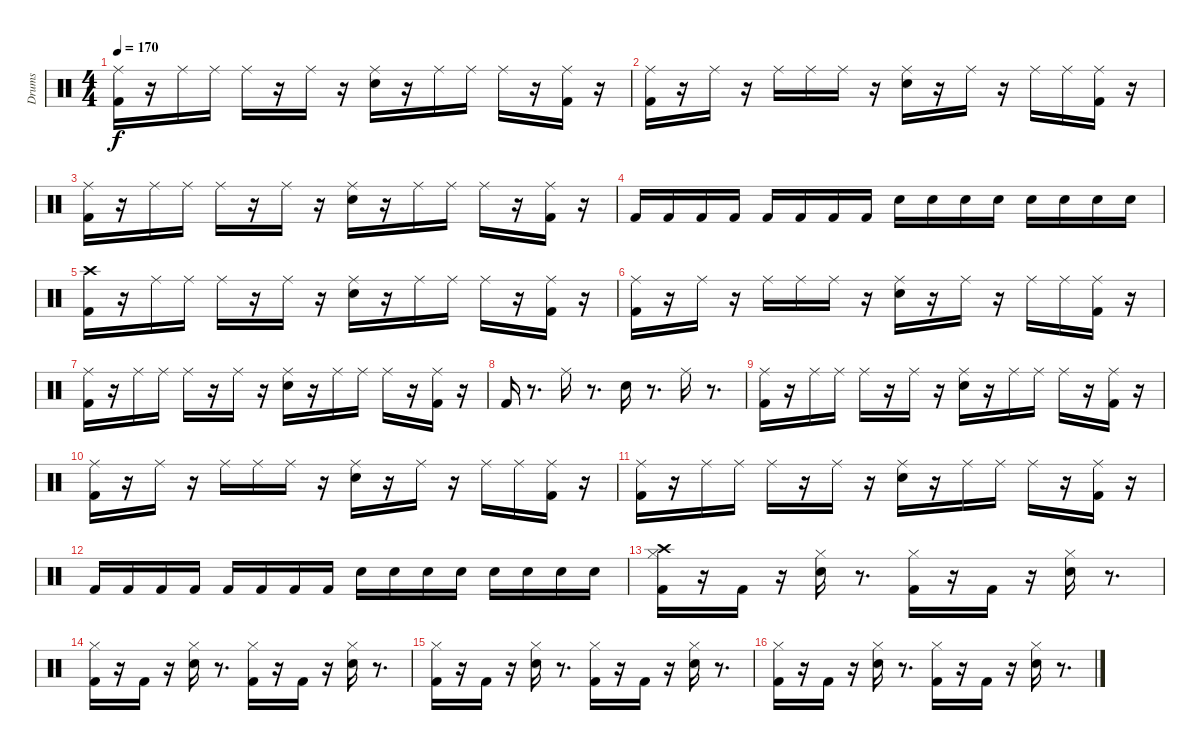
\track ("Drums               " "Drums     ") {instrument percussion}
\staff {score}
\articulation defaults
\ts (4 4)
\tempo 170
\clef neutral
\ks c
("Kick (hit) 2" "Ride (middle)").16{dy f} r.16 "Ride (middle)".16 "Ride (middle)".16 "Ride (middle)".16 r.16 "Ride (middle)".16 r.16 ("Snare (hit) 2" "Ride (middle)").16 r.16 "Ride (middle)".16 "Ride (middle)".16 "Ride (middle)".16 r.16 ("Kick (hit) 2" "Ride (middle)").16 r.16 |
("Kick (hit) 2" "Ride (middle)").16 r.16 "Ride (middle)".16 r.16 "Ride (middle)".16 "Ride (middle)".16 "Ride (middle)".16 r.16 ("Snare (hit) 2" "Ride (middle)").16 r.16 "Ride (middle)".16 r.16 "Ride (middle)".16 "Ride (middle)".16 ("Ride (middle)" "Kick (hit) 2").16 r.16 |
("Kick (hit) 2" "Ride (middle)").16 r.16 "Ride (middle)".16 "Ride (middle)".16 "Ride (middle)".16 r.16 "Ride (middle)".16 r.16 ("Snare (hit) 2" "Ride (middle)").16 r.16 "Ride (middle)".16 "Ride (middle)".16 "Ride (middle)".16 r.16 ("Kick (hit) 2" "Ride (middle)").16 r.16 |
"Kick (hit) 2".16 "Kick (hit) 2".16 "Kick (hit) 2".16 "Kick (hit) 2".16 "Kick (hit) 2".16 "Kick (hit) 2".16 "Kick (hit) 2".16 "Kick (hit) 2".16 "Snare (hit) 2".16 "Snare (hit) 2".16 "Snare (hit) 2".16 "Snare (hit) 2".16 "Snare (hit) 2".16 "Snare (hit) 2".16 "Snare (hit) 2".16 "Snare (hit) 2".16 |
("Kick (hit) 2" "Crash high (hit)").16 r.16 "Ride (middle)".16 "Ride (middle)".16 "Ride (middle)".16 r.16 "Ride (middle)".16 r.16 ("Snare (hit) 2" "Ride (middle)").16 r.16 "Ride (middle)".16 "Ride (middle)".16 "Ride (middle)".16 r.16 ("Kick (hit) 2" "Ride (middle)").16 r.16 |
("Kick (hit) 2" "Ride (middle)").16 r.16 "Ride (middle)".16 r.16 "Ride (middle)".16 "Ride (middle)".16 "Ride (middle)".16 r.16 ("Snare (hit) 2" "Ride (middle)").16 r.16 "Ride (middle)".16 r.16 "Ride (middle)".16 "Ride (middle)".16 ("Ride (middle)" "Kick (hit) 2").16 r.16 |
("Kick (hit) 2" "Ride (middle)").16 r.16 "Ride (middle)".16 "Ride (middle)".16 "Ride (middle)".16 r.16 "Ride (middle)".16 r.16 ("Snare (hit) 2" "Ride (middle)").16 r.16 "Ride (middle)".16 "Ride (middle)".16 "Ride (middle)".16 r.16 ("Kick (hit) 2" "Ride (middle)").16 r.16 |
"Kick (hit) 2".16 r.8{d} "Ride (middle)".16 r.8{d} "Snare (hit) 2".16 r.8{d} "Ride (middle)".16 r.8{d} |
("Kick (hit) 2" "Ride (middle)").16 r.16 "Ride (middle)".16 "Ride (middle)".16 "Ride (middle)".16 r.16 "Ride (middle)".16 r.16 ("Snare (hit) 2" "Ride (middle)").16 r.16 "Ride (middle)".16 "Ride (middle)".16 "Ride (middle)".16 r.16 ("Kick (hit) 2" "Ride (middle)").16 r.16 |
("Kick (hit) 2" "Ride (middle)").16 r.16 "Ride (middle)".16 r.16 "Ride (middle)".16 "Ride (middle)".16 "Ride (middle)".16 r.16 ("Snare (hit) 2" "Ride (middle)").16 r.16 "Ride (middle)".16 r.16 "Ride (middle)".16 "Ride (middle)".16 ("Ride (middle)" "Kick (hit) 2").16 r.16 |
("Kick (hit) 2" "Ride (middle)").16 r.16 "Ride (middle)".16 "Ride (middle)".16 "Ride (middle)".16 r.16 "Ride (middle)".16 r.16 ("Snare (hit) 2" "Ride (middle)").16 r.16 "Ride (middle)".16 "Ride (middle)".16 "Ride (middle)".16 r.16 ("Kick (hit) 2" "Ride (middle)").16 r.16 |
"Kick (hit) 2".16 "Kick (hit) 2".16 "Kick (hit) 2".16 "Kick (hit) 2".16 "Kick (hit) 2".16 "Kick (hit) 2".16 "Kick (hit) 2".16 "Kick (hit) 2".16 "Snare (hit) 2".16 "Snare (hit) 2".16 "Snare (hit) 2".16 "Snare (hit) 2".16 "Snare (hit) 2".16 "Snare (hit) 2".16 "Snare (hit) 2".16 "Snare (hit) 2".16 |
("Kick (hit) 2" "Hi-Hat (closed)" "Crash high (hit)").16 r.16 "Kick (hit) 2".16 r.16 ("Snare (hit) 2" "Hi-Hat (closed)").16 r.8{d} ("Kick (hit) 2" "Hi-Hat (closed)").16 r.16 "Kick (hit) 2".16 r.16 ("Snare (hit) 2" "Hi-Hat (closed)").16 r.8{d} |
("Kick (hit) 2" "Hi-Hat (closed)").16 r.16 "Kick (hit) 2".16 r.16 ("Snare (hit) 2" "Hi-Hat (closed)").16 r.8{d} ("Kick (hit) 2" "Hi-Hat (closed)").16 r.16 "Kick (hit) 2".16 r.16 ("Snare (hit) 2" "Hi-Hat (closed)").16 r.8{d} |
("Kick (hit) 2" "Hi-Hat (closed)").16 r.16 "Kick (hit) 2".16 r.16 ("Snare (hit) 2" "Hi-Hat (closed)").16 r.8{d} ("Kick (hit) 2" "Hi-Hat (closed)").16 r.16 "Kick (hit) 2".16 r.16 ("Snare (hit) 2" "Hi-Hat (closed)").16 r.8{d} |
("Kick (hit) 2" "Hi-Hat (closed)").16 r.16 "Kick (hit) 2".16 r.16 ("Snare (hit) 2" "Hi-Hat (closed)").16 r.8{d} ("Kick (hit) 2" "Hi-Hat (closed)").16 r.16 "Kick (hit) 2".16 r.16 ("Snare (hit) 2" "Hi-Hat (closed)").16 r.8{d}
